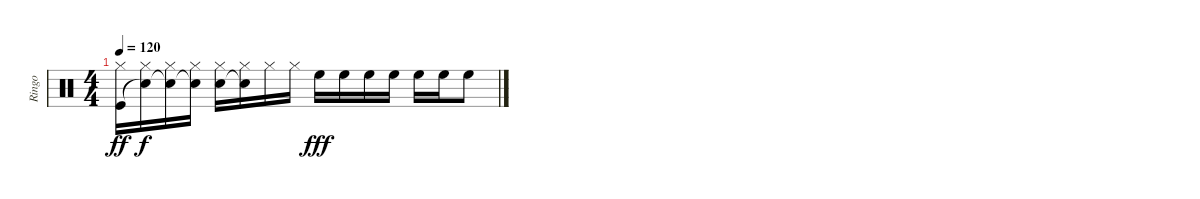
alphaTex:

\track ("Ringo" "Ringo") {instrument percussion}
\staff {score}
\articulation defaults
\ts (4 4)
\tempo 120
\clef neutral
\ks c
("Hi-Hat (closed)" "Kick (hit)").16{dy ff} ("Hi-Hat (closed)" "Snare (hit)"{t}).16{dy f} ("Hi-Hat (closed)" "Snare (hit)"{t}).16 ("Hi-Hat (closed)" "Snare (hit)"{t}).16 ("Hi-Hat (closed)" "Electric Snare (hit)").16 ("Hi-Hat (closed)" "Snare (hit)"{t}).16 "Hi-Hat (closed)".16 "Hi-Hat (closed)".16 "High Floor Tom (hit)".16{dy fff} "High Floor Tom (hit)".16 "High Floor Tom (hit)".16 "High Floor Tom (hit)".16 "High Floor Tom (hit)".16 "High Floor Tom (hit)".16 "High Floor Tom (hit)".8
